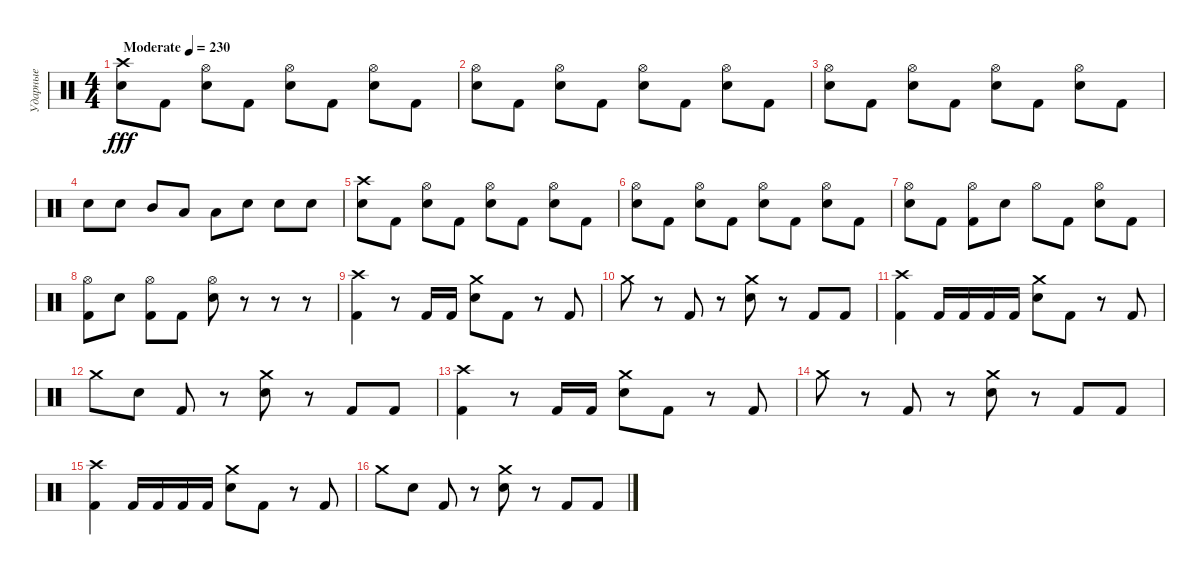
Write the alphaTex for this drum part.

\track ("Ударные" "Ударные") {instrument percussion}
\staff {score}
\articulation defaults
\ts (4 4)
\tempo (230 "Moderate")
\clef neutral
\ks c
("Electric Snare (hit)" "Crash high (hit)").8{dy fff} "Kick (hit) 2".8 ("Electric Snare (hit)" "Hi-Hat (open)").8 "Kick (hit) 2".8 ("Electric Snare (hit)" "Hi-Hat (open)").8 "Kick (hit) 2".8 ("Electric Snare (hit)" "Hi-Hat (open)").8 "Kick (hit) 2".8 |
("Electric Snare (hit)" "Hi-Hat (open)").8 "Kick (hit) 2".8 ("Electric Snare (hit)" "Hi-Hat (open)").8 "Kick (hit) 2".8 ("Electric Snare (hit)" "Hi-Hat (open)").8 "Kick (hit) 2".8 ("Electric Snare (hit)" "Hi-Hat (open)").8 "Kick (hit) 2".8 |
("Electric Snare (hit)" "Hi-Hat (open)").8 "Kick (hit) 2".8 ("Electric Snare (hit)" "Hi-Hat (open)").8 "Kick (hit) 2".8 ("Electric Snare (hit)" "Hi-Hat (open)").8 "Kick (hit) 2".8 ("Electric Snare (hit)" "Hi-Hat (open)").8 "Kick (hit) 2".8 |
"Electric Snare (hit)".8 "Electric Snare (hit)".8 "Mid Tom (hit)".8 "Low Tom (hit)".8 "Low Tom (hit)".8 "Electric Snare (hit)".8 "Electric Snare (hit)".8 "Electric Snare (hit)".8 |
("Electric Snare (hit)" "Crash high (hit)").8 "Kick (hit) 2".8 ("Electric Snare (hit)" "Hi-Hat (open)").8 "Kick (hit) 2".8 ("Electric Snare (hit)" "Hi-Hat (open)").8 "Kick (hit) 2".8 ("Electric Snare (hit)" "Hi-Hat (open)").8 "Kick (hit) 2".8 |
("Electric Snare (hit)" "Hi-Hat (open)").8 "Kick (hit) 2".8 ("Electric Snare (hit)" "Hi-Hat (open)").8 "Kick (hit) 2".8 ("Electric Snare (hit)" "Hi-Hat (open)").8 "Kick (hit) 2".8 ("Electric Snare (hit)" "Hi-Hat (open)").8 "Kick (hit) 2".8 |
("Electric Snare (hit)" "Hi-Hat (open)").8 "Kick (hit) 2".8 ("Kick (hit) 2" "Hi-Hat (open)").8 "Electric Snare (hit)".8 "Hi-Hat (open)".8 "Kick (hit) 2".8 ("Electric Snare (hit)" "Hi-Hat (open)").8 "Kick (hit) 2".8 |
("Kick (hit) 2" "Hi-Hat (open)").8 "Electric Snare (hit)".8 ("Kick (hit) 2" "Hi-Hat (open)").8 "Kick (hit) 2".8 ("Electric Snare (hit)" "Hi-Hat (open)").8 r.8 r.8 r.8 |
("Kick (hit) 2" "Crash high (hit)").4 r.8 "Kick (hit) 2".16 "Kick (hit) 2".16 ("Electric Snare (hit)" "Crash medium (hit)").8 "Kick (hit) 2".8 r.8 "Kick (hit) 2".8 |
"Crash medium (hit)".8 r.8 "Kick (hit) 2".8 r.8 ("Electric Snare (hit)" "Crash medium (hit)").8 r.8 "Kick (hit) 2".8 "Kick (hit) 2".8 |
("Kick (hit) 2" "Crash high (hit)").4 "Kick (hit) 2".16 "Kick (hit) 2".16 "Kick (hit) 2".16 "Kick (hit) 2".16 ("Electric Snare (hit)" "Crash medium (hit)").8 "Kick (hit) 2".8 r.8 "Kick (hit) 2".8 |
"Crash medium (hit)".8 "Electric Snare (hit)".8 "Kick (hit) 2".8 r.8 ("Electric Snare (hit)" "Crash medium (hit)").8 r.8 "Kick (hit) 2".8 "Kick (hit) 2".8 |
("Kick (hit) 2" "Crash high (hit)").4 r.8 "Kick (hit) 2".16 "Kick (hit) 2".16 ("Electric Snare (hit)" "Crash medium (hit)").8 "Kick (hit) 2".8 r.8 "Kick (hit) 2".8 |
"Crash medium (hit)".8 r.8 "Kick (hit) 2".8 r.8 ("Electric Snare (hit)" "Crash medium (hit)").8 r.8 "Kick (hit) 2".8 "Kick (hit) 2".8 |
("Kick (hit) 2" "Crash high (hit)").4 "Kick (hit) 2".16 "Kick (hit) 2".16 "Kick (hit) 2".16 "Kick (hit) 2".16 ("Electric Snare (hit)" "Crash medium (hit)").8 "Kick (hit) 2".8 r.8 "Kick (hit) 2".8 |
"Crash medium (hit)".8 "Electric Snare (hit)".8 "Kick (hit) 2".8 r.8 ("Electric Snare (hit)" "Crash medium (hit)").8 r.8 "Kick (hit) 2".8 "Kick (hit) 2".8
